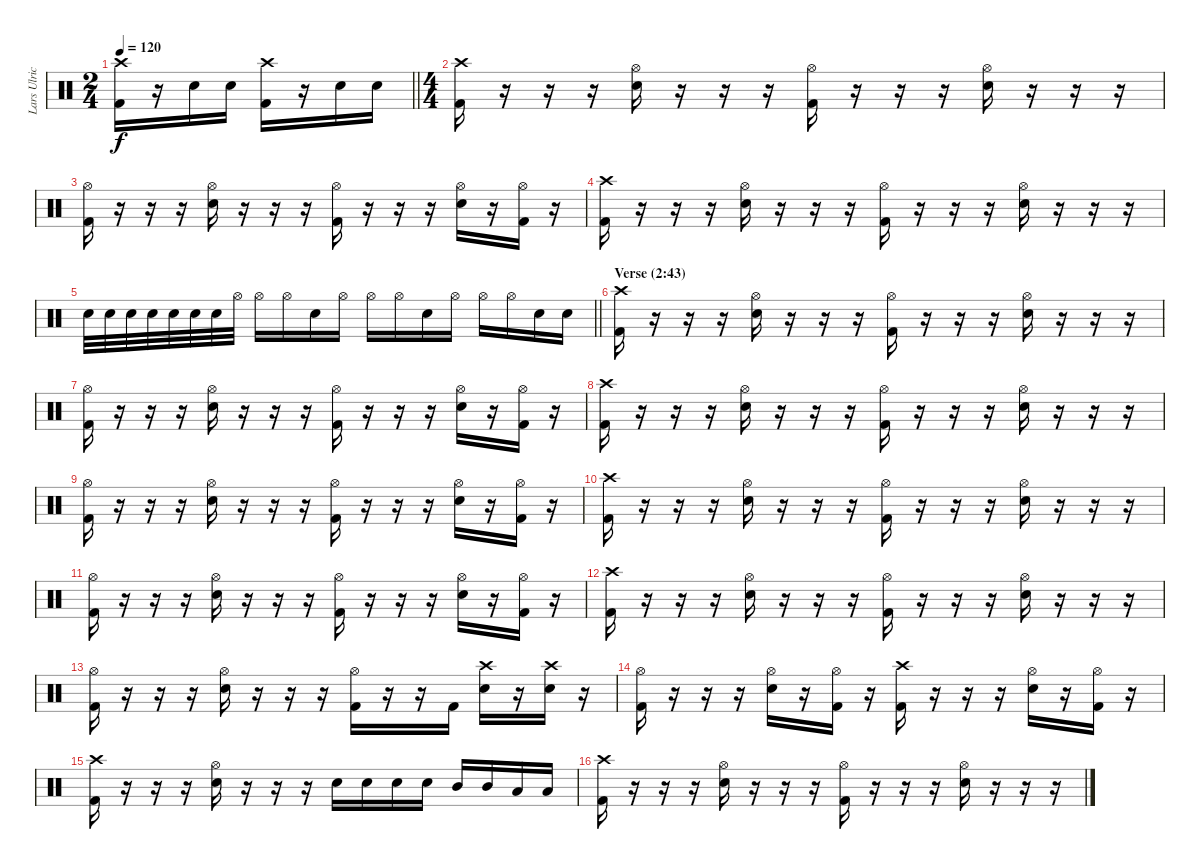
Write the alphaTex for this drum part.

\track ("Lars Ulrich" "Lars Ulric") {instrument percussion}
\staff {score}
\articulation defaults
\ts (2 4)
\tempo 120
\clef neutral
\barLineRight lightlight
\ks c
("Crash high (hit)" "Kick (hit) 2").16{dy f} r.16 "Electric Snare (hit)".16 "Electric Snare (hit)".16 ("Crash high (hit)" "Kick (hit) 2").16 r.16 "Electric Snare (hit)".16 "Electric Snare (hit)".16 |
\ts (4 4)
("Crash high (hit)" "Kick (hit) 2").16 r.16 r.16 r.16 ("Electric Snare (hit)" "Hi-Hat (open)").16 r.16 r.16 r.16 ("Hi-Hat (open)" "Kick (hit) 2").16 r.16 r.16 r.16 ("Electric Snare (hit)" "Hi-Hat (open)").16 r.16 r.16 r.16 |
("Hi-Hat (open)" "Kick (hit) 2").16 r.16 r.16 r.16 ("Electric Snare (hit)" "Hi-Hat (open)").16 r.16 r.16 r.16 ("Hi-Hat (open)" "Kick (hit) 2").16 r.16 r.16 r.16 ("Electric Snare (hit)" "Hi-Hat (open)").16 r.16 ("Hi-Hat (open)" "Kick (hit) 2").16 r.16 |
("Crash high (hit)" "Kick (hit) 2").16 r.16 r.16 r.16 ("Electric Snare (hit)" "Hi-Hat (open)").16 r.16 r.16 r.16 ("Hi-Hat (open)" "Kick (hit) 2").16 r.16 r.16 r.16 ("Electric Snare (hit)" "Hi-Hat (open)").16 r.16 r.16 r.16 |
\barLineRight lightlight "Electric Snare (hit)".32 "Electric Snare (hit)".32 "Electric Snare (hit)".32 "Electric Snare (hit)".32 "Electric Snare (hit)".32 "Electric Snare (hit)".32 "Electric Snare (hit)".32 "Hi-Hat (open)".32 "Hi-Hat (open)".16 "Hi-Hat (open)".16 "Electric Snare (hit)".16 "Hi-Hat (open)".16 "Hi-Hat (open)".16 "Hi-Hat (open)".16 "Electric Snare (hit)".16 "Hi-Hat (open)".16 "Hi-Hat (open)".16 "Hi-Hat (open)".16 "Electric Snare (hit)".16 "Electric Snare (hit)".16
|
\section ("" "Verse (2:43)")
("Crash high (hit)" "Kick (hit) 2").16 r.16 r.16 r.16 ("Electric Snare (hit)" "Hi-Hat (open)").16 r.16 r.16 r.16 ("Hi-Hat (open)" "Kick (hit) 2").16 r.16 r.16 r.16 ("Electric Snare (hit)" "Hi-Hat (open)").16 r.16 r.16 r.16 |
("Hi-Hat (open)" "Kick (hit) 2").16 r.16 r.16 r.16 ("Electric Snare (hit)" "Hi-Hat (open)").16 r.16 r.16 r.16 ("Hi-Hat (open)" "Kick (hit) 2").16 r.16 r.16 r.16 ("Electric Snare (hit)" "Hi-Hat (open)").16 r.16 ("Hi-Hat (open)" "Kick (hit) 2").16 r.16 |
("Crash high (hit)" "Kick (hit) 2").16 r.16 r.16 r.16 ("Electric Snare (hit)" "Hi-Hat (open)").16 r.16 r.16 r.16 ("Hi-Hat (open)" "Kick (hit) 2").16 r.16 r.16 r.16 ("Electric Snare (hit)" "Hi-Hat (open)").16 r.16 r.16 r.16 |
("Hi-Hat (open)" "Kick (hit) 2").16 r.16 r.16 r.16 ("Electric Snare (hit)" "Hi-Hat (open)").16 r.16 r.16 r.16 ("Hi-Hat (open)" "Kick (hit) 2").16 r.16 r.16 r.16 ("Electric Snare (hit)" "Hi-Hat (open)").16 r.16 ("Hi-Hat (open)" "Kick (hit) 2").16 r.16 |
("Crash high (hit)" "Kick (hit) 2").16 r.16 r.16 r.16 ("Electric Snare (hit)" "Hi-Hat (open)").16 r.16 r.16 r.16 ("Hi-Hat (open)" "Kick (hit) 2").16 r.16 r.16 r.16 ("Electric Snare (hit)" "Hi-Hat (open)").16 r.16 r.16 r.16 |
("Hi-Hat (open)" "Kick (hit) 2").16 r.16 r.16 r.16 ("Electric Snare (hit)" "Hi-Hat (open)").16 r.16 r.16 r.16 ("Hi-Hat (open)" "Kick (hit) 2").16 r.16 r.16 r.16 ("Electric Snare (hit)" "Hi-Hat (open)").16 r.16 ("Hi-Hat (open)" "Kick (hit) 2").16 r.16 |
("Crash high (hit)" "Kick (hit) 2").16 r.16 r.16 r.16 ("Electric Snare (hit)" "Hi-Hat (open)").16 r.16 r.16 r.16 ("Hi-Hat (open)" "Kick (hit) 2").16 r.16 r.16 r.16 ("Electric Snare (hit)" "Hi-Hat (open)").16 r.16 r.16 r.16 |
("Hi-Hat (open)" "Kick (hit) 2").16 r.16 r.16 r.16 ("Electric Snare (hit)" "Hi-Hat (open)").16 r.16 r.16 r.16 ("Hi-Hat (open)" "Kick (hit) 2").16 r.16 r.16 "Kick (hit) 2".16 ("Crash high (hit)" "Electric Snare (hit)").16 r.16 ("Crash high (hit)" "Electric Snare (hit)").16 r.16 |
("Hi-Hat (open)" "Kick (hit) 2").16 r.16 r.16 r.16 ("Electric Snare (hit)" "Hi-Hat (open)").16 r.16 ("Hi-Hat (open)" "Kick (hit) 2").16 r.16 ("Crash high (hit)" "Kick (hit) 2").16 r.16 r.16 r.16 ("Electric Snare (hit)" "Hi-Hat (open)").16 r.16 ("Hi-Hat (open)" "Kick (hit) 2").16 r.16 |
("Crash high (hit)" "Kick (hit) 2").16 r.16 r.16 r.16 ("Electric Snare (hit)" "Hi-Hat (open)").16 r.16 r.16 r.16 "Electric Snare (hit)".16 "Electric Snare (hit)".16 "Electric Snare (hit)".16 "Electric Snare (hit)".16 "Mid Tom (hit)".16 "Mid Tom (hit)".16 "Low Tom (hit)".16 "Low Tom (hit)".16 |
("Crash high (hit)" "Kick (hit) 2").16 r.16 r.16 r.16 ("Electric Snare (hit)" "Hi-Hat (open)").16 r.16 r.16 r.16 ("Hi-Hat (open)" "Kick (hit) 2").16 r.16 r.16 r.16 ("Electric Snare (hit)" "Hi-Hat (open)").16 r.16 r.16 r.16
